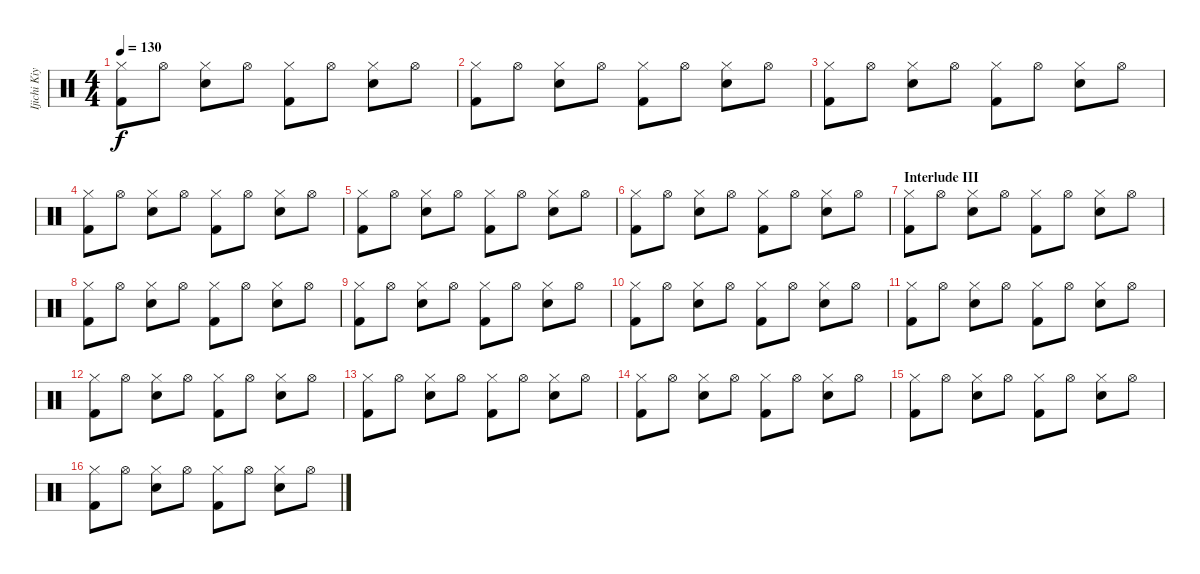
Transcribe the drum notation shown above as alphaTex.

\track ("Ijichi Kiyoshi (Drums)" "Ijichi Kiy") {instrument percussion}
\staff {score}
\articulation defaults
\ts (4 4)
\tempo 130
\clef neutral
\ks c
("Hi-Hat (closed)" "Kick (hit) 2").8{dy f} "Hi-Hat (open)".8 ("Hi-Hat (closed)" "Snare (hit) 2").8 "Hi-Hat (open)".8 ("Hi-Hat (closed)" "Kick (hit) 2").8 "Hi-Hat (open)".8 ("Hi-Hat (closed)" "Snare (hit) 2").8 "Hi-Hat (open)".8 |
("Hi-Hat (closed)" "Kick (hit) 2").8 "Hi-Hat (open)".8 ("Hi-Hat (closed)" "Snare (hit) 2").8 "Hi-Hat (open)".8 ("Hi-Hat (closed)" "Kick (hit) 2").8 "Hi-Hat (open)".8 ("Hi-Hat (closed)" "Snare (hit) 2").8 "Hi-Hat (open)".8 |
("Hi-Hat (closed)" "Kick (hit) 2").8 "Hi-Hat (open)".8 ("Hi-Hat (closed)" "Snare (hit) 2").8 "Hi-Hat (open)".8 ("Hi-Hat (closed)" "Kick (hit) 2").8 "Hi-Hat (open)".8 ("Hi-Hat (closed)" "Snare (hit) 2").8 "Hi-Hat (open)".8 |
("Hi-Hat (closed)" "Kick (hit) 2").8 "Hi-Hat (open)".8 ("Hi-Hat (closed)" "Snare (hit) 2").8 "Hi-Hat (open)".8 ("Hi-Hat (closed)" "Kick (hit) 2").8 "Hi-Hat (open)".8 ("Hi-Hat (closed)" "Snare (hit) 2").8 "Hi-Hat (open)".8 |
("Hi-Hat (closed)" "Kick (hit) 2").8 "Hi-Hat (open)".8 ("Hi-Hat (closed)" "Snare (hit) 2").8 "Hi-Hat (open)".8 ("Hi-Hat (closed)" "Kick (hit) 2").8 "Hi-Hat (open)".8 ("Hi-Hat (closed)" "Snare (hit) 2").8 "Hi-Hat (open)".8 |
("Hi-Hat (closed)" "Kick (hit) 2").8 "Hi-Hat (open)".8 ("Hi-Hat (closed)" "Snare (hit) 2").8 "Hi-Hat (open)".8 ("Hi-Hat (closed)" "Kick (hit) 2").8 "Hi-Hat (open)".8 ("Hi-Hat (closed)" "Snare (hit) 2").8 "Hi-Hat (open)".8 |
\section ("" "Interlude III")
("Hi-Hat (closed)" "Kick (hit) 2").8 "Hi-Hat (open)".8 ("Hi-Hat (closed)" "Snare (hit) 2").8 "Hi-Hat (open)".8 ("Hi-Hat (closed)" "Kick (hit) 2").8 "Hi-Hat (open)".8 ("Hi-Hat (closed)" "Snare (hit) 2").8 "Hi-Hat (open)".8 |
("Hi-Hat (closed)" "Kick (hit) 2").8 "Hi-Hat (open)".8 ("Hi-Hat (closed)" "Snare (hit) 2").8 "Hi-Hat (open)".8 ("Hi-Hat (closed)" "Kick (hit) 2").8 "Hi-Hat (open)".8 ("Hi-Hat (closed)" "Snare (hit) 2").8 "Hi-Hat (open)".8 |
("Hi-Hat (closed)" "Kick (hit) 2").8 "Hi-Hat (open)".8 ("Hi-Hat (closed)" "Snare (hit) 2").8 "Hi-Hat (open)".8 ("Hi-Hat (closed)" "Kick (hit) 2").8 "Hi-Hat (open)".8 ("Hi-Hat (closed)" "Snare (hit) 2").8 "Hi-Hat (open)".8 |
("Hi-Hat (closed)" "Kick (hit) 2").8 "Hi-Hat (open)".8 ("Hi-Hat (closed)" "Snare (hit) 2").8 "Hi-Hat (open)".8 ("Hi-Hat (closed)" "Kick (hit) 2").8 "Hi-Hat (open)".8 ("Hi-Hat (closed)" "Snare (hit) 2").8 "Hi-Hat (open)".8 |
("Hi-Hat (closed)" "Kick (hit) 2").8 "Hi-Hat (open)".8 ("Hi-Hat (closed)" "Snare (hit) 2").8 "Hi-Hat (open)".8 ("Hi-Hat (closed)" "Kick (hit) 2").8 "Hi-Hat (open)".8 ("Hi-Hat (closed)" "Snare (hit) 2").8 "Hi-Hat (open)".8 |
("Hi-Hat (closed)" "Kick (hit) 2").8 "Hi-Hat (open)".8 ("Hi-Hat (closed)" "Snare (hit) 2").8 "Hi-Hat (open)".8 ("Hi-Hat (closed)" "Kick (hit) 2").8 "Hi-Hat (open)".8 ("Hi-Hat (closed)" "Snare (hit) 2").8 "Hi-Hat (open)".8 |
("Hi-Hat (closed)" "Kick (hit) 2").8 "Hi-Hat (open)".8 ("Hi-Hat (closed)" "Snare (hit) 2").8 "Hi-Hat (open)".8 ("Hi-Hat (closed)" "Kick (hit) 2").8 "Hi-Hat (open)".8 ("Hi-Hat (closed)" "Snare (hit) 2").8 "Hi-Hat (open)".8 |
("Hi-Hat (closed)" "Kick (hit) 2").8 "Hi-Hat (open)".8 ("Hi-Hat (closed)" "Snare (hit) 2").8 "Hi-Hat (open)".8 ("Hi-Hat (closed)" "Kick (hit) 2").8 "Hi-Hat (open)".8 ("Hi-Hat (closed)" "Snare (hit) 2").8 "Hi-Hat (open)".8 |
("Hi-Hat (closed)" "Kick (hit) 2").8 "Hi-Hat (open)".8 ("Hi-Hat (closed)" "Snare (hit) 2").8 "Hi-Hat (open)".8 ("Hi-Hat (closed)" "Kick (hit) 2").8 "Hi-Hat (open)".8 ("Hi-Hat (closed)" "Snare (hit) 2").8 "Hi-Hat (open)".8 |
("Hi-Hat (closed)" "Kick (hit) 2").8 "Hi-Hat (open)".8 ("Hi-Hat (closed)" "Snare (hit) 2").8 "Hi-Hat (open)".8 ("Hi-Hat (closed)" "Kick (hit) 2").8 "Hi-Hat (open)".8 ("Hi-Hat (closed)" "Snare (hit) 2").8 "Hi-Hat (open)".8
